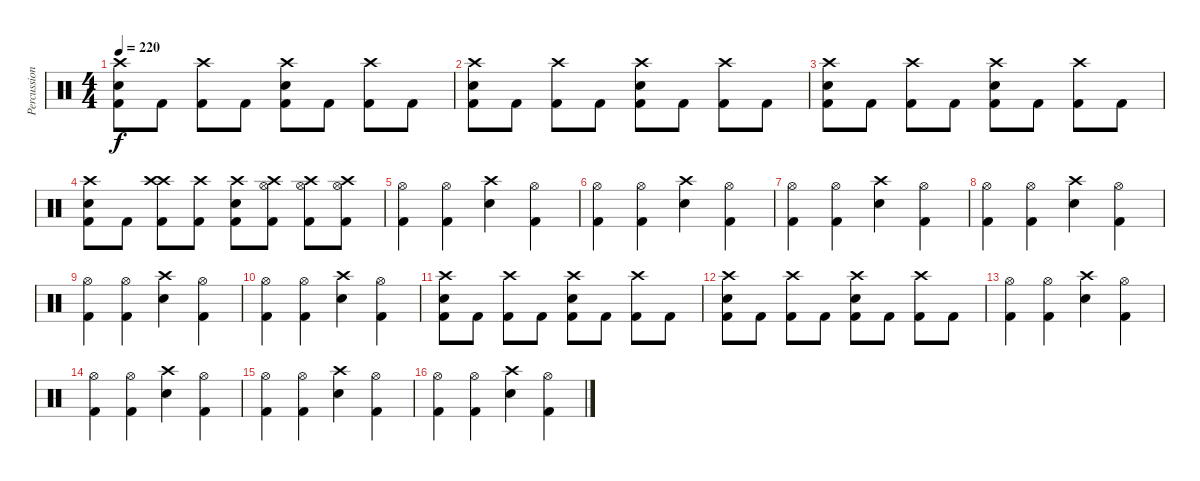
\track ("Percussions" "Percussion") {instrument percussion}
\staff {score}
\articulation defaults
\ts (4 4)
\tempo 220
\clef neutral
\ks c
("Crash high (hit)" "Electric Snare (hit)" "Kick (hit) 2").8{dy f} "Kick (hit) 2".8 ("Crash high (hit)" "Kick (hit) 2").8 "Kick (hit) 2".8 ("Crash high (hit)" "Electric Snare (hit)" "Kick (hit) 2").8 "Kick (hit) 2".8 ("Crash high (hit)" "Kick (hit) 2").8 "Kick (hit) 2".8 |
("Crash high (hit)" "Electric Snare (hit)" "Kick (hit) 2").8 "Kick (hit) 2".8 ("Crash high (hit)" "Kick (hit) 2").8 "Kick (hit) 2".8 ("Crash high (hit)" "Electric Snare (hit)" "Kick (hit) 2").8 "Kick (hit) 2".8 ("Crash high (hit)" "Kick (hit) 2").8 "Kick (hit) 2".8 |
("Crash high (hit)" "Electric Snare (hit)" "Kick (hit) 2").8 "Kick (hit) 2".8 ("Crash high (hit)" "Kick (hit) 2").8 "Kick (hit) 2".8 ("Crash high (hit)" "Electric Snare (hit)" "Kick (hit) 2").8 "Kick (hit) 2".8 ("Crash high (hit)" "Kick (hit) 2").8 "Kick (hit) 2".8 |
("Crash high (hit)" "Electric Snare (hit)" "Kick (hit) 2").8 "Kick (hit) 2".8 ("Crash high (hit)" "Crash high (hit)" "Kick (hit) 2").8 ("Crash high (hit)" "Kick (hit) 2").8 ("Crash high (hit)" "Electric Snare (hit)" "Kick (hit) 2").8 ("Crash high (hit)" "Hi-Hat (open)" "Kick (hit) 2").8 ("Crash high (hit)" "Hi-Hat (open)" "Kick (hit) 2").8 ("Crash high (hit)" "Hi-Hat (open)" "Kick (hit) 2").8 |
("Kick (hit) 2" "Hi-Hat (open)").4 ("Kick (hit) 2" "Hi-Hat (open)").4 ("Electric Snare (hit)" "Crash high (hit)").4 ("Kick (hit) 2" "Hi-Hat (open)").4 |
("Kick (hit) 2" "Hi-Hat (open)").4 ("Kick (hit) 2" "Hi-Hat (open)").4 ("Electric Snare (hit)" "Crash high (hit)").4 ("Kick (hit) 2" "Hi-Hat (open)").4 |
("Kick (hit) 2" "Hi-Hat (open)").4 ("Kick (hit) 2" "Hi-Hat (open)").4 ("Electric Snare (hit)" "Crash high (hit)").4 ("Kick (hit) 2" "Hi-Hat (open)").4 |
("Kick (hit) 2" "Hi-Hat (open)").4 ("Kick (hit) 2" "Hi-Hat (open)").4 ("Electric Snare (hit)" "Crash high (hit)").4 ("Kick (hit) 2" "Hi-Hat (open)").4 |
("Kick (hit) 2" "Hi-Hat (open)").4 ("Kick (hit) 2" "Hi-Hat (open)").4 ("Electric Snare (hit)" "Crash high (hit)").4 ("Kick (hit) 2" "Hi-Hat (open)").4 |
("Kick (hit) 2" "Hi-Hat (open)").4 ("Kick (hit) 2" "Hi-Hat (open)").4 ("Electric Snare (hit)" "Crash high (hit)").4 ("Kick (hit) 2" "Hi-Hat (open)").4 |
("Crash high (hit)" "Electric Snare (hit)" "Kick (hit) 2").8 "Kick (hit) 2".8 ("Crash high (hit)" "Kick (hit) 2").8 "Kick (hit) 2".8 ("Crash high (hit)" "Electric Snare (hit)" "Kick (hit) 2").8 "Kick (hit) 2".8 ("Crash high (hit)" "Kick (hit) 2").8 "Kick (hit) 2".8 |
("Crash high (hit)" "Electric Snare (hit)" "Kick (hit) 2").8 "Kick (hit) 2".8 ("Crash high (hit)" "Kick (hit) 2").8 "Kick (hit) 2".8 ("Crash high (hit)" "Electric Snare (hit)" "Kick (hit) 2").8 "Kick (hit) 2".8 ("Crash high (hit)" "Kick (hit) 2").8 "Kick (hit) 2".8 |
("Kick (hit) 2" "Hi-Hat (open)").4 ("Kick (hit) 2" "Hi-Hat (open)").4 ("Electric Snare (hit)" "Crash high (hit)").4 ("Kick (hit) 2" "Hi-Hat (open)").4 |
("Kick (hit) 2" "Hi-Hat (open)").4 ("Kick (hit) 2" "Hi-Hat (open)").4 ("Electric Snare (hit)" "Crash high (hit)").4 ("Kick (hit) 2" "Hi-Hat (open)").4 |
("Kick (hit) 2" "Hi-Hat (open)").4 ("Kick (hit) 2" "Hi-Hat (open)").4 ("Electric Snare (hit)" "Crash high (hit)").4 ("Kick (hit) 2" "Hi-Hat (open)").4 |
("Kick (hit) 2" "Hi-Hat (open)").4 ("Kick (hit) 2" "Hi-Hat (open)").4 ("Electric Snare (hit)" "Crash high (hit)").4 ("Kick (hit) 2" "Hi-Hat (open)").4
